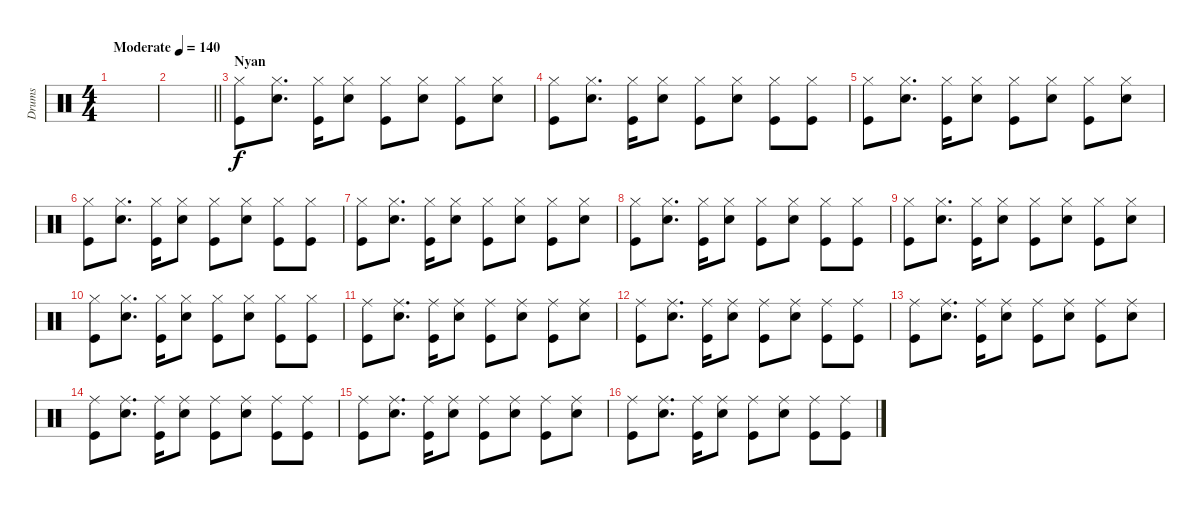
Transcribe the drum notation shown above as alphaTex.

\track ("Drums" "Drums") {instrument percussion}
\staff {score}
\articulation defaults
\ts (4 4)
\tempo (140 "Moderate")
\clef neutral
\ks c
|
\barLineRight lightlight
|
\section ("" "Nyan")
("Kick (hit)" "Hi-Hat (closed)").8 ("Electric Snare (hit)" "Hi-Hat (closed)").8{d} ("Kick (hit)" "Hi-Hat (closed)").16 ("Electric Snare (hit)" "Hi-Hat (closed)").8 ("Kick (hit)" "Hi-Hat (closed)").8 ("Electric Snare (hit)" "Hi-Hat (closed)").8 ("Kick (hit)" "Hi-Hat (closed)").8 ("Electric Snare (hit)" "Hi-Hat (closed)").8 |
("Kick (hit)" "Hi-Hat (closed)").8 ("Electric Snare (hit)" "Hi-Hat (closed)").8{d} ("Kick (hit)" "Hi-Hat (closed)").16 ("Electric Snare (hit)" "Hi-Hat (closed)").8 ("Kick (hit)" "Hi-Hat (closed)").8 ("Electric Snare (hit)" "Hi-Hat (closed)").8 ("Kick (hit)" "Hi-Hat (closed)").8 ("Kick (hit)" "Hi-Hat (closed)").8 |
("Kick (hit)" "Hi-Hat (closed)").8 ("Electric Snare (hit)" "Hi-Hat (closed)").8{d} ("Kick (hit)" "Hi-Hat (closed)").16 ("Electric Snare (hit)" "Hi-Hat (closed)").8 ("Kick (hit)" "Hi-Hat (closed)").8 ("Electric Snare (hit)" "Hi-Hat (closed)").8 ("Kick (hit)" "Hi-Hat (closed)").8 ("Electric Snare (hit)" "Hi-Hat (closed)").8 |
("Kick (hit)" "Hi-Hat (closed)").8 ("Electric Snare (hit)" "Hi-Hat (closed)").8{d} ("Kick (hit)" "Hi-Hat (closed)").16 ("Electric Snare (hit)" "Hi-Hat (closed)").8 ("Kick (hit)" "Hi-Hat (closed)").8 ("Electric Snare (hit)" "Hi-Hat (closed)").8 ("Kick (hit)" "Hi-Hat (closed)").8 ("Kick (hit)" "Hi-Hat (closed)").8 |
("Kick (hit)" "Hi-Hat (closed)").8 ("Electric Snare (hit)" "Hi-Hat (closed)").8{d} ("Kick (hit)" "Hi-Hat (closed)").16 ("Electric Snare (hit)" "Hi-Hat (closed)").8 ("Kick (hit)" "Hi-Hat (closed)").8 ("Electric Snare (hit)" "Hi-Hat (closed)").8 ("Kick (hit)" "Hi-Hat (closed)").8 ("Electric Snare (hit)" "Hi-Hat (closed)").8 |
("Kick (hit)" "Hi-Hat (closed)").8 ("Electric Snare (hit)" "Hi-Hat (closed)").8{d} ("Kick (hit)" "Hi-Hat (closed)").16 ("Electric Snare (hit)" "Hi-Hat (closed)").8 ("Kick (hit)" "Hi-Hat (closed)").8 ("Electric Snare (hit)" "Hi-Hat (closed)").8 ("Kick (hit)" "Hi-Hat (closed)").8 ("Kick (hit)" "Hi-Hat (closed)").8 |
("Kick (hit)" "Hi-Hat (closed)").8 ("Electric Snare (hit)" "Hi-Hat (closed)").8{d} ("Kick (hit)" "Hi-Hat (closed)").16 ("Electric Snare (hit)" "Hi-Hat (closed)").8 ("Kick (hit)" "Hi-Hat (closed)").8 ("Electric Snare (hit)" "Hi-Hat (closed)").8 ("Kick (hit)" "Hi-Hat (closed)").8 ("Electric Snare (hit)" "Hi-Hat (closed)").8 |
("Kick (hit)" "Hi-Hat (closed)").8 ("Electric Snare (hit)" "Hi-Hat (closed)").8{d} ("Kick (hit)" "Hi-Hat (closed)").16 ("Electric Snare (hit)" "Hi-Hat (closed)").8 ("Kick (hit)" "Hi-Hat (closed)").8 ("Electric Snare (hit)" "Hi-Hat (closed)").8 ("Kick (hit)" "Hi-Hat (closed)").8 ("Kick (hit)" "Hi-Hat (closed)").8 |
("Kick (hit)" "Ride (middle)").8 ("Electric Snare (hit)" "Ride (middle)").8{d} ("Kick (hit)" "Ride (middle)").16 ("Electric Snare (hit)" "Ride (middle)").8 ("Kick (hit)" "Ride (middle)").8 ("Electric Snare (hit)" "Ride (middle)").8 ("Kick (hit)" "Ride (middle)").8 ("Electric Snare (hit)" "Ride (middle)").8 |
("Kick (hit)" "Ride (middle)").8 ("Electric Snare (hit)" "Ride (middle)").8{d} ("Kick (hit)" "Ride (middle)").16 ("Electric Snare (hit)" "Ride (middle)").8 ("Kick (hit)" "Ride (middle)").8 ("Electric Snare (hit)" "Ride (middle)").8 ("Kick (hit)" "Ride (middle)").8 ("Kick (hit)" "Ride (middle)").8 |
("Kick (hit)" "Ride (middle)").8 ("Electric Snare (hit)" "Ride (middle)").8{d} ("Kick (hit)" "Ride (middle)").16 ("Electric Snare (hit)" "Ride (middle)").8 ("Kick (hit)" "Ride (middle)").8 ("Electric Snare (hit)" "Ride (middle)").8 ("Kick (hit)" "Ride (middle)").8 ("Electric Snare (hit)" "Ride (middle)").8 |
("Kick (hit)" "Ride (middle)").8 ("Electric Snare (hit)" "Ride (middle)").8{d} ("Kick (hit)" "Ride (middle)").16 ("Electric Snare (hit)" "Ride (middle)").8 ("Kick (hit)" "Ride (middle)").8 ("Electric Snare (hit)" "Ride (middle)").8 ("Kick (hit)" "Ride (middle)").8 ("Kick (hit)" "Ride (middle)").8 |
("Kick (hit)" "Ride (middle)").8 ("Electric Snare (hit)" "Ride (middle)").8{d} ("Kick (hit)" "Ride (middle)").16 ("Electric Snare (hit)" "Ride (middle)").8 ("Kick (hit)" "Ride (middle)").8 ("Electric Snare (hit)" "Ride (middle)").8 ("Kick (hit)" "Ride (middle)").8 ("Electric Snare (hit)" "Ride (middle)").8 |
("Kick (hit)" "Ride (middle)").8 ("Electric Snare (hit)" "Ride (middle)").8{d} ("Kick (hit)" "Ride (middle)").16 ("Electric Snare (hit)" "Ride (middle)").8 ("Kick (hit)" "Ride (middle)").8 ("Electric Snare (hit)" "Ride (middle)").8 ("Kick (hit)" "Ride (middle)").8 ("Kick (hit)" "Ride (middle)").8
